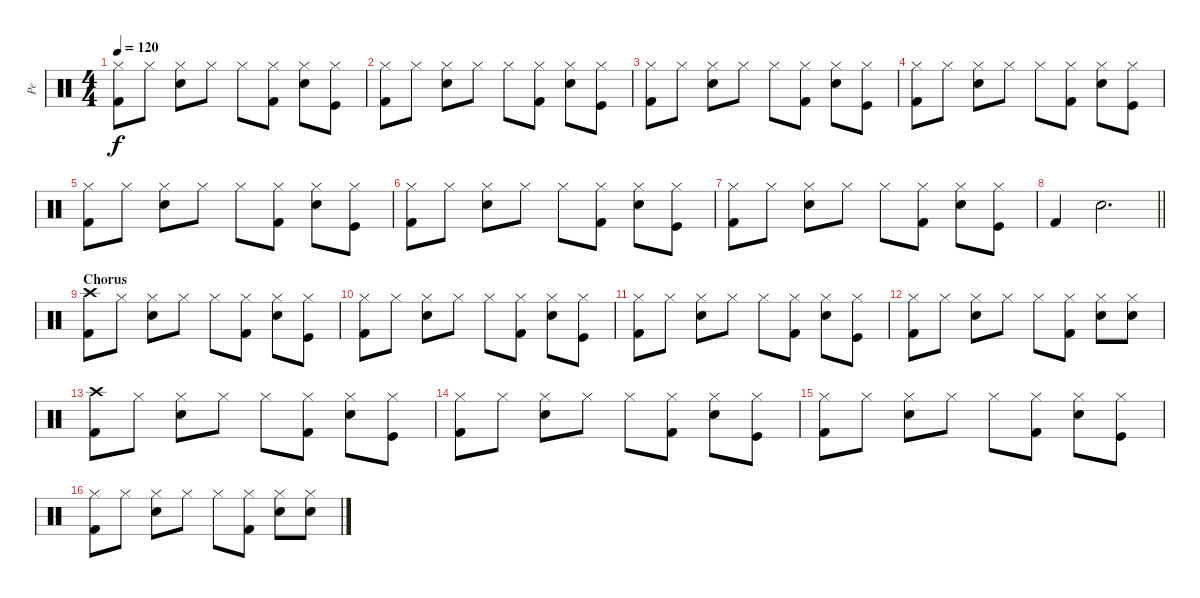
\track ("Pe" "Pe") {instrument percussion}
\staff {score}
\articulation defaults
\ts (4 4)
\tempo 120
\clef neutral
\ks c
("Kick (hit) 2" "Hi-Hat (closed)").8{dy f} "Hi-Hat (closed)".8 ("Snare (hit) 2" "Hi-Hat (closed)").8 "Hi-Hat (closed)".8 "Hi-Hat (closed)".8 ("Kick (hit) 2" "Hi-Hat (closed)").8 ("Snare (hit) 2" "Hi-Hat (closed)").8 ("Kick (hit)" "Hi-Hat (closed)").8 |
("Kick (hit) 2" "Hi-Hat (closed)").8 "Hi-Hat (closed)".8 ("Snare (hit) 2" "Hi-Hat (closed)").8 "Hi-Hat (closed)".8 "Hi-Hat (closed)".8 ("Kick (hit) 2" "Hi-Hat (closed)").8 ("Snare (hit) 2" "Hi-Hat (closed)").8 ("Kick (hit)" "Hi-Hat (closed)").8 |
("Kick (hit) 2" "Hi-Hat (closed)").8 "Hi-Hat (closed)".8 ("Snare (hit) 2" "Hi-Hat (closed)").8 "Hi-Hat (closed)".8 "Hi-Hat (closed)".8 ("Kick (hit) 2" "Hi-Hat (closed)").8 ("Snare (hit) 2" "Hi-Hat (closed)").8 ("Kick (hit)" "Hi-Hat (closed)").8 |
("Kick (hit) 2" "Hi-Hat (closed)").8 "Hi-Hat (closed)".8 ("Snare (hit) 2" "Hi-Hat (closed)").8 "Hi-Hat (closed)".8 "Hi-Hat (closed)".8 ("Kick (hit) 2" "Hi-Hat (closed)").8 ("Snare (hit) 2" "Hi-Hat (closed)").8 ("Kick (hit)" "Hi-Hat (closed)").8 |
("Kick (hit) 2" "Hi-Hat (closed)").8 "Hi-Hat (closed)".8 ("Snare (hit) 2" "Hi-Hat (closed)").8 "Hi-Hat (closed)".8 "Hi-Hat (closed)".8 ("Kick (hit) 2" "Hi-Hat (closed)").8 ("Snare (hit) 2" "Hi-Hat (closed)").8 ("Kick (hit)" "Hi-Hat (closed)").8 |
("Kick (hit) 2" "Hi-Hat (closed)").8 "Hi-Hat (closed)".8 ("Snare (hit) 2" "Hi-Hat (closed)").8 "Hi-Hat (closed)".8 "Hi-Hat (closed)".8 ("Kick (hit) 2" "Hi-Hat (closed)").8 ("Snare (hit) 2" "Hi-Hat (closed)").8 ("Kick (hit)" "Hi-Hat (closed)").8 |
("Kick (hit) 2" "Hi-Hat (closed)").8 "Hi-Hat (closed)".8 ("Snare (hit) 2" "Hi-Hat (closed)").8 "Hi-Hat (closed)".8 "Hi-Hat (closed)".8 ("Kick (hit) 2" "Hi-Hat (closed)").8 ("Snare (hit) 2" "Hi-Hat (closed)").8 ("Kick (hit)" "Hi-Hat (closed)").8 |
\barLineRight lightlight "Kick (hit) 2".4 "Snare (hit) 2".2{d}
|
\section ("" "Chorus")
("Kick (hit) 2" "Crash high (hit)").8 "Hi-Hat (closed)".8 ("Snare (hit) 2" "Hi-Hat (closed)").8 "Hi-Hat (closed)".8 "Hi-Hat (closed)".8 ("Kick (hit) 2" "Hi-Hat (closed)").8 ("Snare (hit) 2" "Hi-Hat (closed)").8 ("Kick (hit)" "Hi-Hat (closed)").8 |
("Kick (hit) 2" "Hi-Hat (closed)").8 "Hi-Hat (closed)".8 ("Snare (hit) 2" "Hi-Hat (closed)").8 "Hi-Hat (closed)".8 "Hi-Hat (closed)".8 ("Kick (hit) 2" "Hi-Hat (closed)").8 ("Snare (hit) 2" "Hi-Hat (closed)").8 ("Kick (hit)" "Hi-Hat (closed)").8 |
("Kick (hit) 2" "Hi-Hat (closed)").8 "Hi-Hat (closed)".8 ("Snare (hit) 2" "Hi-Hat (closed)").8 "Hi-Hat (closed)".8 "Hi-Hat (closed)".8 ("Kick (hit) 2" "Hi-Hat (closed)").8 ("Snare (hit) 2" "Hi-Hat (closed)").8 ("Kick (hit)" "Hi-Hat (closed)").8 |
("Kick (hit) 2" "Hi-Hat (closed)").8 "Hi-Hat (closed)".8 ("Snare (hit) 2" "Hi-Hat (closed)").8 "Hi-Hat (closed)".8 "Hi-Hat (closed)".8 ("Kick (hit) 2" "Hi-Hat (closed)").8 ("Snare (hit) 2" "Hi-Hat (closed)").8 ("Snare (hit) 2" "Hi-Hat (closed)").8 |
("Kick (hit) 2" "Crash high (hit)").8 "Hi-Hat (closed)".8 ("Snare (hit) 2" "Hi-Hat (closed)").8 "Hi-Hat (closed)".8 "Hi-Hat (closed)".8 ("Kick (hit) 2" "Hi-Hat (closed)").8 ("Snare (hit) 2" "Hi-Hat (closed)").8 ("Kick (hit)" "Hi-Hat (closed)").8 |
("Kick (hit) 2" "Hi-Hat (closed)").8 "Hi-Hat (closed)".8 ("Snare (hit) 2" "Hi-Hat (closed)").8 "Hi-Hat (closed)".8 "Hi-Hat (closed)".8 ("Kick (hit) 2" "Hi-Hat (closed)").8 ("Snare (hit) 2" "Hi-Hat (closed)").8 ("Kick (hit)" "Hi-Hat (closed)").8 |
("Kick (hit) 2" "Hi-Hat (closed)").8 "Hi-Hat (closed)".8 ("Snare (hit) 2" "Hi-Hat (closed)").8 "Hi-Hat (closed)".8 "Hi-Hat (closed)".8 ("Kick (hit) 2" "Hi-Hat (closed)").8 ("Snare (hit) 2" "Hi-Hat (closed)").8 ("Kick (hit)" "Hi-Hat (closed)").8 |
("Kick (hit) 2" "Hi-Hat (closed)").8 "Hi-Hat (closed)".8 ("Snare (hit) 2" "Hi-Hat (closed)").8 "Hi-Hat (closed)".8 "Hi-Hat (closed)".8 ("Kick (hit) 2" "Hi-Hat (closed)").8 ("Snare (hit) 2" "Hi-Hat (closed)").8 ("Snare (hit) 2" "Hi-Hat (closed)").8
